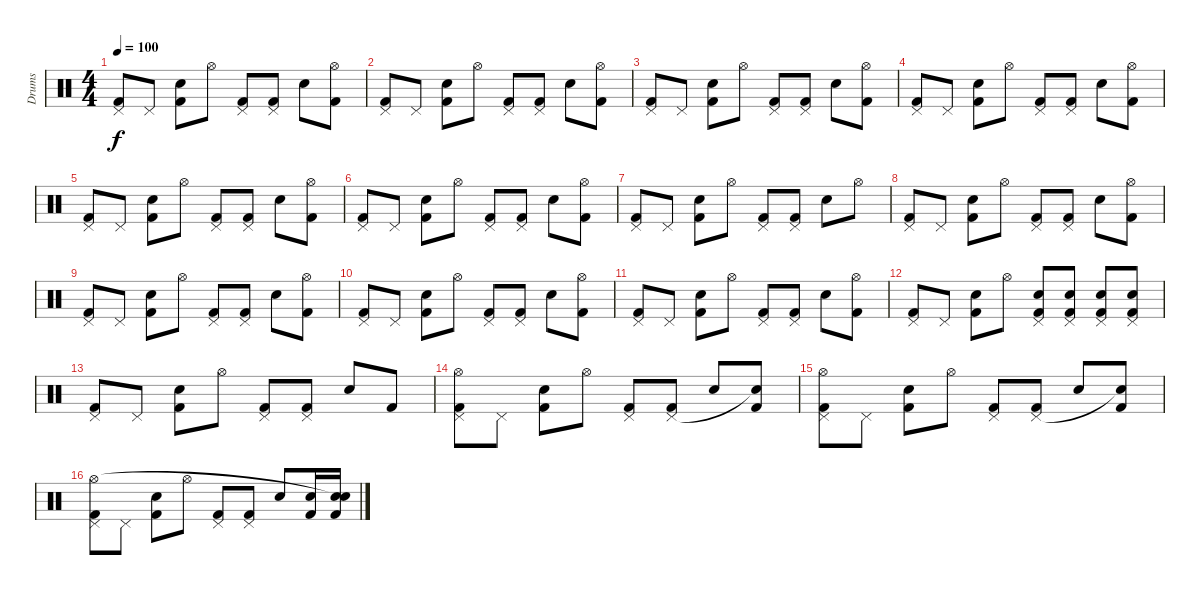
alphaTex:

\track ("Drums" "Drums") {instrument percussion}
\staff {score}
\articulation defaults
\ts (4 4)
\tempo 100
\clef neutral
\ks c
("Kick (hit) 2" "Pedal Hi-Hat (hit)").8{dy f} "Pedal Hi-Hat (hit)".8 ("Kick (hit) 2" "Electric Snare (hit)").8 "Hi-Hat (open)".8 ("Kick (hit) 2" "Pedal Hi-Hat (hit)").8 ("Kick (hit) 2" "Pedal Hi-Hat (hit)").8 "Electric Snare (hit)".8 ("Kick (hit) 2" "Hi-Hat (open)").8 |
("Kick (hit) 2" "Pedal Hi-Hat (hit)").8 "Pedal Hi-Hat (hit)".8 ("Kick (hit) 2" "Electric Snare (hit)").8 "Hi-Hat (open)".8 ("Kick (hit) 2" "Pedal Hi-Hat (hit)").8 ("Kick (hit) 2" "Pedal Hi-Hat (hit)").8 "Electric Snare (hit)".8 ("Kick (hit) 2" "Hi-Hat (open)").8 |
("Kick (hit) 2" "Pedal Hi-Hat (hit)").8 "Pedal Hi-Hat (hit)".8 ("Kick (hit) 2" "Electric Snare (hit)").8 "Hi-Hat (open)".8 ("Kick (hit) 2" "Pedal Hi-Hat (hit)").8 ("Kick (hit) 2" "Pedal Hi-Hat (hit)").8 "Electric Snare (hit)".8 ("Kick (hit) 2" "Hi-Hat (open)").8 |
("Kick (hit) 2" "Pedal Hi-Hat (hit)").8 "Pedal Hi-Hat (hit)".8 ("Kick (hit) 2" "Electric Snare (hit)").8 "Hi-Hat (open)".8 ("Kick (hit) 2" "Pedal Hi-Hat (hit)").8 ("Kick (hit) 2" "Pedal Hi-Hat (hit)").8 "Electric Snare (hit)".8 ("Kick (hit) 2" "Hi-Hat (open)").8 |
("Kick (hit) 2" "Pedal Hi-Hat (hit)").8 "Pedal Hi-Hat (hit)".8 ("Kick (hit) 2" "Electric Snare (hit)").8 "Hi-Hat (open)".8 ("Kick (hit) 2" "Pedal Hi-Hat (hit)").8 ("Kick (hit) 2" "Pedal Hi-Hat (hit)").8 "Electric Snare (hit)".8 ("Kick (hit) 2" "Hi-Hat (open)").8 |
("Kick (hit) 2" "Pedal Hi-Hat (hit)").8 "Pedal Hi-Hat (hit)".8 ("Kick (hit) 2" "Electric Snare (hit)").8 "Hi-Hat (open)".8 ("Kick (hit) 2" "Pedal Hi-Hat (hit)").8 ("Kick (hit) 2" "Pedal Hi-Hat (hit)").8 "Electric Snare (hit)".8 ("Kick (hit) 2" "Hi-Hat (open)").8 |
("Kick (hit) 2" "Pedal Hi-Hat (hit)").8 "Pedal Hi-Hat (hit)".8 ("Kick (hit) 2" "Electric Snare (hit)").8 "Hi-Hat (open)".8 ("Kick (hit) 2" "Pedal Hi-Hat (hit)").8 ("Kick (hit) 2" "Pedal Hi-Hat (hit)").8 "Electric Snare (hit)".8 "Hi-Hat (open)".8 |
("Kick (hit) 2" "Pedal Hi-Hat (hit)").8 "Pedal Hi-Hat (hit)".8 ("Kick (hit) 2" "Electric Snare (hit)").8 "Hi-Hat (open)".8 ("Kick (hit) 2" "Pedal Hi-Hat (hit)").8 ("Kick (hit) 2" "Pedal Hi-Hat (hit)").8 "Electric Snare (hit)".8 ("Kick (hit) 2" "Hi-Hat (open)").8 |
("Kick (hit) 2" "Pedal Hi-Hat (hit)").8 "Pedal Hi-Hat (hit)".8 ("Kick (hit) 2" "Electric Snare (hit)").8 "Hi-Hat (open)".8 ("Kick (hit) 2" "Pedal Hi-Hat (hit)").8 ("Kick (hit) 2" "Pedal Hi-Hat (hit)").8 "Electric Snare (hit)".8 ("Kick (hit) 2" "Hi-Hat (open)").8 |
("Kick (hit) 2" "Pedal Hi-Hat (hit)").8 "Pedal Hi-Hat (hit)".8 ("Kick (hit) 2" "Electric Snare (hit)").8 "Hi-Hat (open)".8 ("Kick (hit) 2" "Pedal Hi-Hat (hit)").8 ("Kick (hit) 2" "Pedal Hi-Hat (hit)").8 "Electric Snare (hit)".8 ("Kick (hit) 2" "Hi-Hat (open)").8 |
("Kick (hit) 2" "Pedal Hi-Hat (hit)").8 "Pedal Hi-Hat (hit)".8 ("Kick (hit) 2" "Electric Snare (hit)").8 "Hi-Hat (open)".8 ("Kick (hit) 2" "Pedal Hi-Hat (hit)").8 ("Kick (hit) 2" "Pedal Hi-Hat (hit)").8 "Electric Snare (hit)".8 ("Kick (hit) 2" "Hi-Hat (open)").8 |
("Kick (hit) 2" "Pedal Hi-Hat (hit)").8 "Pedal Hi-Hat (hit)".8 ("Kick (hit) 2" "Electric Snare (hit)").8 "Hi-Hat (open)".8 ("Kick (hit) 2" "Pedal Hi-Hat (hit)" "Electric Snare (hit)").8 ("Kick (hit) 2" "Pedal Hi-Hat (hit)" "Electric Snare (hit)").8 ("Kick (hit) 2" "Pedal Hi-Hat (hit)" "Electric Snare (hit)").8 ("Kick (hit) 2" "Pedal Hi-Hat (hit)" "Electric Snare (hit)").8 |
("Kick (hit) 2" "Pedal Hi-Hat (hit)").8 "Pedal Hi-Hat (hit)".8 ("Kick (hit) 2" "Electric Snare (hit)").8 "Hi-Hat (open)".8 ("Kick (hit) 2" "Pedal Hi-Hat (hit)").8 ("Kick (hit) 2" "Pedal Hi-Hat (hit)").8 "Electric Snare (hit)".8 "Kick (hit) 2".8 |
("Kick (hit) 2" "Pedal Hi-Hat (hit)" "Hi-Hat (open)").8 "Pedal Hi-Hat (hit)".8 ("Kick (hit) 2" "Electric Snare (hit)").8 "Hi-Hat (open)".8 ("Kick (hit) 2" "Pedal Hi-Hat (hit)").8 ("Kick (hit) 2" "Pedal Hi-Hat (hit)").8 "Electric Snare (hit)".8 ("Kick (hit) 2" "Snare (hit)"{t}).8 |
("Kick (hit) 2" "Pedal Hi-Hat (hit)" "Hi-Hat (open)").8 "Pedal Hi-Hat (hit)".8 ("Kick (hit) 2" "Electric Snare (hit)").8 "Hi-Hat (open)".8 ("Kick (hit) 2" "Pedal Hi-Hat (hit)").8 ("Kick (hit) 2" "Pedal Hi-Hat (hit)").8 "Electric Snare (hit)".8 ("Kick (hit) 2" "Snare (hit)"{t}).8 |
("Kick (hit) 2" "Pedal Hi-Hat (hit)" "Hi-Hat (open)").8 "Pedal Hi-Hat (hit)".8 ("Kick (hit) 2" "Electric Snare (hit)").8 "Hi-Hat (open)".8 ("Kick (hit) 2" "Pedal Hi-Hat (hit)").8 ("Kick (hit) 2" "Pedal Hi-Hat (hit)").8 "Electric Snare (hit)".8 ("Kick (hit) 2" "Electric Snare (hit)").16 ("Kick (hit) 2" "Electric Snare (hit)" "Snare (hit)"{t}).16
